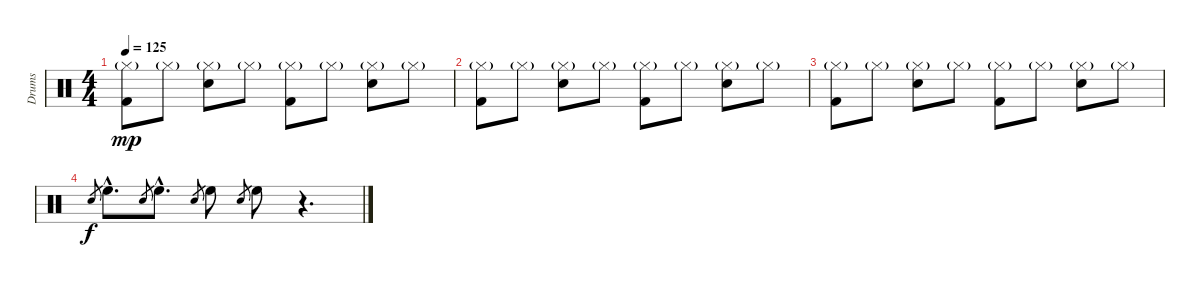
\track ("Drums" "Drums") {instrument percussion}
\staff {score}
\articulation defaults
\ts (4 4)
\tempo 125
\clef neutral
\ks c
("Hi-Hat (closed)"{g} "Kick (hit) 2").8{dy mp} "Hi-Hat (closed)"{g}.8 ("Hi-Hat (closed)"{g} "Snare (hit) 2").8 "Hi-Hat (closed)"{g}.8 ("Hi-Hat (closed)"{g} "Kick (hit) 2").8 "Hi-Hat (closed)"{g}.8 ("Hi-Hat (closed)"{g} "Snare (hit) 2").8 "Hi-Hat (closed)"{g}.8 |
("Hi-Hat (closed)"{g} "Kick (hit) 2").8 "Hi-Hat (closed)"{g}.8 ("Hi-Hat (closed)"{g} "Snare (hit) 2").8 "Hi-Hat (closed)"{g}.8 ("Hi-Hat (closed)"{g} "Kick (hit) 2").8 "Hi-Hat (closed)"{g}.8 ("Hi-Hat (closed)"{g} "Snare (hit) 2").8 "Hi-Hat (closed)"{g}.8 |
("Hi-Hat (closed)"{g} "Kick (hit) 2").8 "Hi-Hat (closed)"{g}.8 ("Hi-Hat (closed)"{g} "Snare (hit) 2").8 "Hi-Hat (closed)"{g}.8 ("Hi-Hat (closed)"{g} "Kick (hit) 2").8 "Hi-Hat (closed)"{g}.8 ("Hi-Hat (closed)"{g} "Snare (hit) 2").8 "Hi-Hat (closed)"{g}.8 |
"Snare (hit) 2".8{gr dy f} "High Floor Tom (hit)"{hac}.8{d} "Snare (hit) 2".8{gr} "High Floor Tom (hit)"{hac}.8{d} "Snare (hit) 2".8{gr} "High Floor Tom (hit)".8 "Snare (hit) 2".8{gr} "High Floor Tom (hit)".8 r.4{d}
